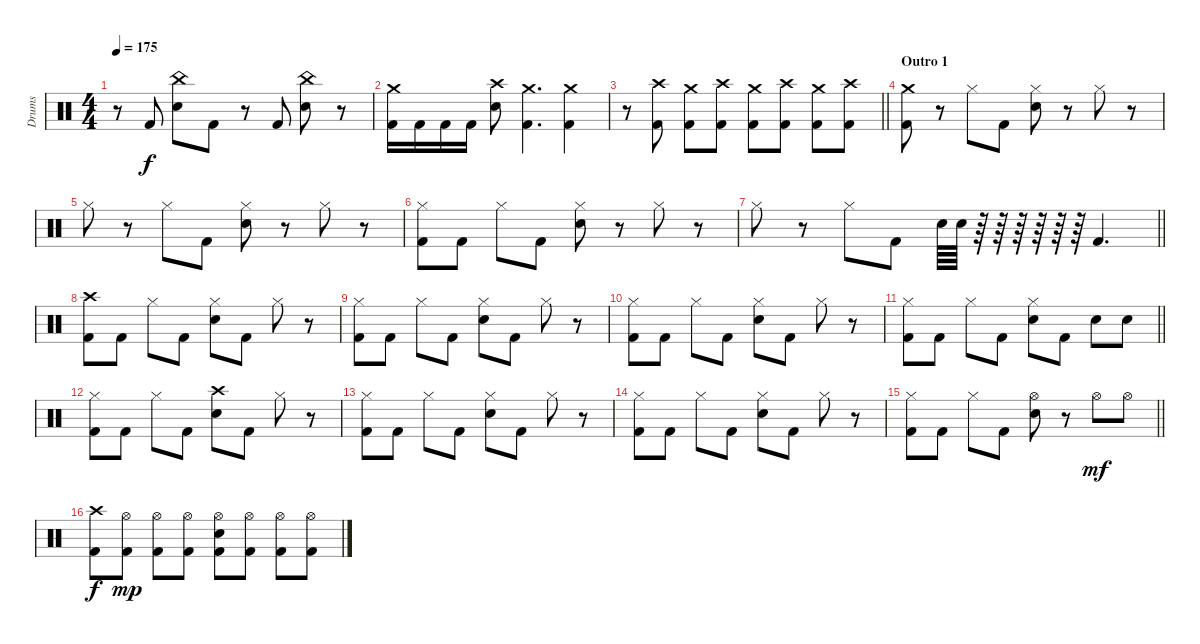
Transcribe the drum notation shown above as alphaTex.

\track ("Drums" "Drums") {instrument percussion}
\staff {score}
\articulation defaults
\ts (4 4)
\tempo 175
\clef neutral
\ks c
r.8{dy f} "Kick (hit) 2".8 ("China (hit)" "Electric Snare (hit)").8 "Kick (hit) 2".8 r.8 "Kick (hit) 2".8 ("China (hit)" "Electric Snare (hit)").8 r.8 |
("Crash medium (hit)" "Kick (hit) 2").16 "Kick (hit) 2".16 "Kick (hit) 2".16 "Kick (hit) 2".16 ("Crash high (hit)" "Electric Snare (hit)").8 ("Crash medium (hit)" "Kick (hit) 2").4{d} ("Crash medium (hit)" "Kick (hit) 2").4 |
\barLineRight lightlight
r.8 ("Crash high (hit)" "Kick (hit) 2").8 ("Crash medium (hit)" "Kick (hit) 2").8 ("Crash high (hit)" "Kick (hit) 2").8 ("Crash medium (hit)" "Kick (hit) 2").8 ("Crash high (hit)" "Kick (hit) 2").8 ("Crash medium (hit)" "Kick (hit) 2").8 ("Crash high (hit)" "Kick (hit) 2").8 |
\section ("" "Outro 1")
("Crash medium (hit)" "Kick (hit) 2").8 r.8 "Hi-Hat (closed)".8 "Kick (hit) 2".8 ("Hi-Hat (closed)" "Electric Snare (hit)").8 r.8 "Hi-Hat (closed)".8 r.8 |
"Hi-Hat (closed)".8 r.8 "Hi-Hat (closed)".8 "Kick (hit) 2".8 ("Hi-Hat (closed)" "Electric Snare (hit)").8 r.8 "Hi-Hat (closed)".8 r.8 |
("Hi-Hat (closed)" "Kick (hit) 2").8 "Kick (hit) 2".8 "Hi-Hat (closed)".8 "Kick (hit) 2".8 ("Hi-Hat (closed)" "Electric Snare (hit)").8 r.8 "Hi-Hat (closed)".8 r.8 |
\barLineRight lightlight "Hi-Hat (closed)".8
r.8 "Hi-Hat (closed)".8 "Kick (hit) 2".8 "Electric Snare (hit)".64 "Electric Snare (hit)".64 r.64 r.64 r.64 r.64 r.64 r.64 "Kick (hit) 2".4{d} |
\section ("" "")
("Crash high (hit)" "Kick (hit) 2").8 "Kick (hit) 2".8 "Hi-Hat (closed)".8 "Kick (hit) 2".8 ("Hi-Hat (closed)" "Electric Snare (hit)").8 "Kick (hit) 2".8 "Hi-Hat (closed)".8 r.8 |
("Hi-Hat (closed)" "Kick (hit) 2").8 "Kick (hit) 2".8 "Hi-Hat (closed)".8 "Kick (hit) 2".8 ("Hi-Hat (closed)" "Electric Snare (hit)").8 "Kick (hit) 2".8 "Hi-Hat (closed)".8 r.8 |
("Hi-Hat (closed)" "Kick (hit) 2").8 "Kick (hit) 2".8 "Hi-Hat (closed)".8 "Kick (hit) 2".8 ("Hi-Hat (closed)" "Electric Snare (hit)").8 "Kick (hit) 2".8 "Hi-Hat (closed)".8 r.8 |
\barLineRight lightlight
("Hi-Hat (closed)" "Kick (hit) 2").8 "Kick (hit) 2".8 "Hi-Hat (closed)".8 "Kick (hit) 2".8 ("Hi-Hat (closed)" "Electric Snare (hit)").8 "Kick (hit) 2".8 "Electric Snare (hit)".8 "Electric Snare (hit)".8 |
("Hi-Hat (closed)" "Kick (hit) 2").8 "Kick (hit) 2".8 "Hi-Hat (closed)".8 "Kick (hit) 2".8 ("Crash high (hit)" "Electric Snare (hit)").8 "Kick (hit) 2".8 "Hi-Hat (closed)".8 r.8 |
("Hi-Hat (closed)" "Kick (hit) 2").8 "Kick (hit) 2".8 "Hi-Hat (closed)".8 "Kick (hit) 2".8 ("Hi-Hat (closed)" "Electric Snare (hit)").8 "Kick (hit) 2".8 "Hi-Hat (closed)".8 r.8 |
("Hi-Hat (closed)" "Kick (hit) 2").8 "Kick (hit) 2".8 "Hi-Hat (closed)".8 "Kick (hit) 2".8 ("Hi-Hat (closed)" "Electric Snare (hit)").8 "Kick (hit) 2".8 "Hi-Hat (closed)".8 r.8 |
\barLineRight lightlight
("Hi-Hat (closed)" "Kick (hit) 2").8 "Kick (hit) 2".8 "Hi-Hat (closed)".8 "Kick (hit) 2".8 ("Hi-Hat (open)" "Electric Snare (hit)").8 r.8 "Hi-Hat (open)".8{dy mf} "Hi-Hat (open)".8 |
\section ("" "")
("Crash high (hit)" "Kick (hit) 2").8{dy f} ("Hi-Hat (open)" "Kick (hit) 2").8{dy mp} ("Hi-Hat (open)" "Kick (hit) 2").8 ("Hi-Hat (open)" "Kick (hit) 2").8 ("Hi-Hat (open)" "Electric Snare (hit)" "Kick (hit) 2").8 ("Hi-Hat (open)" "Kick (hit) 2").8 ("Hi-Hat (open)" "Kick (hit) 2").8 ("Hi-Hat (open)" "Kick (hit) 2").8
